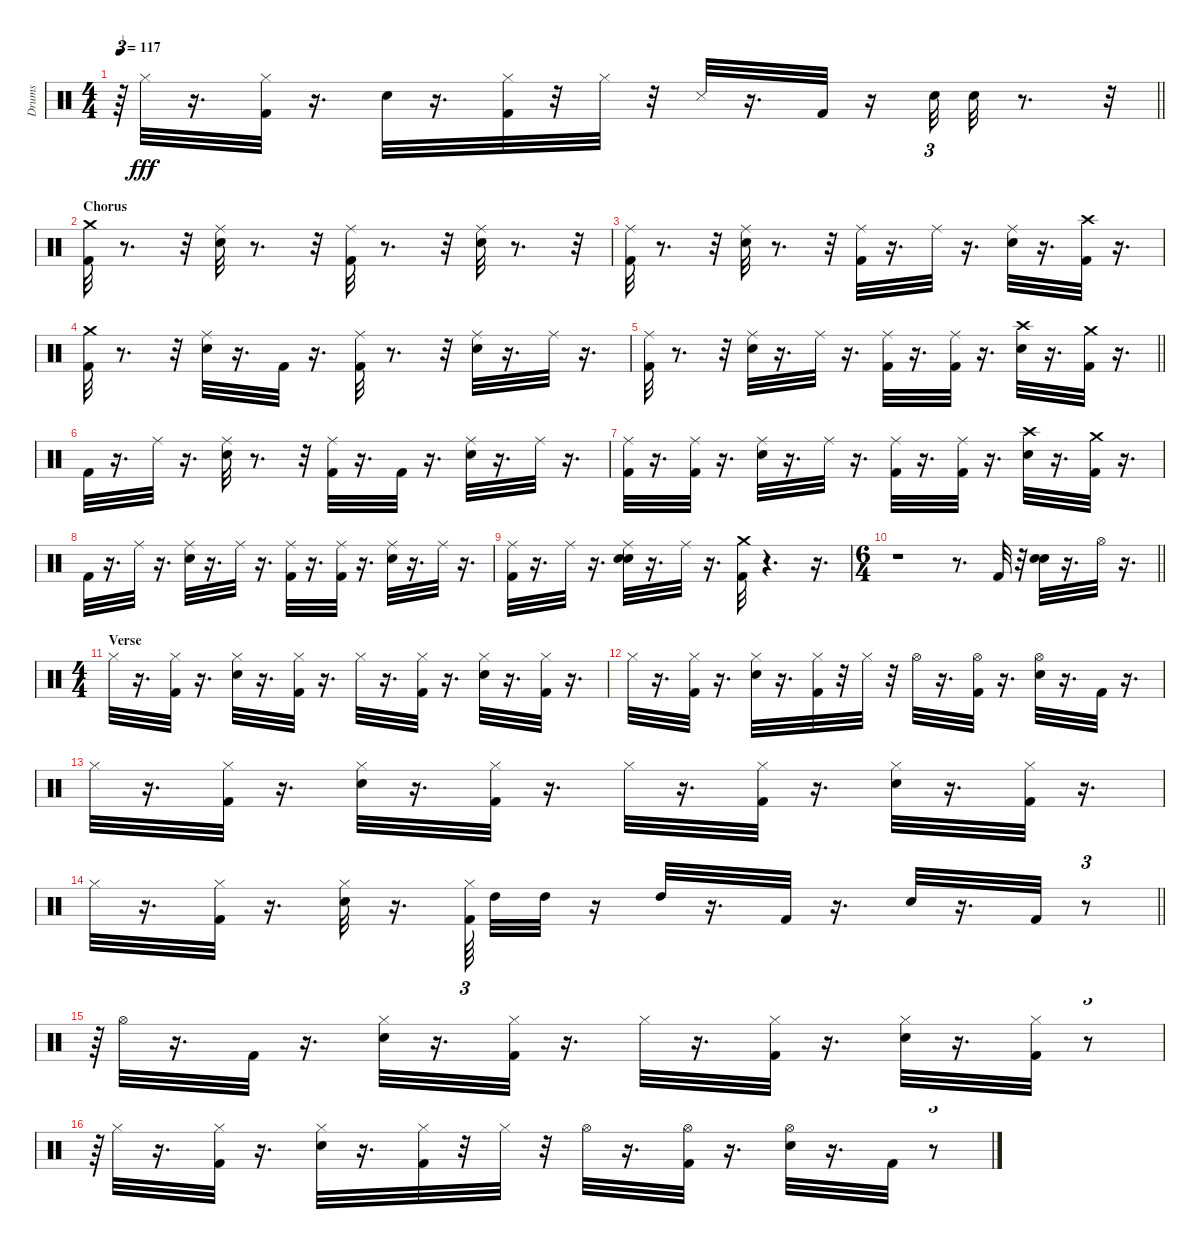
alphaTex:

\track ("Drums" "Drums") {instrument percussion}
\staff {score}
\articulation defaults
\ts (4 4)
\tempo 117
\clef neutral
\barLineRight lightlight
\ks c
r.64{tu (3 2) dy fff} "Hi-Hat (closed)".32 r.16{d} ("Hi-Hat (closed)" "Kick (hit) 2").32 r.16{d} "Electric Snare (hit)".32 r.16{d} ("Kick (hit) 2" "Hi-Hat (closed)").32 r.32 "Hi-Hat (closed)".32 r.32 "Snare (side stick) 3".32 r.16{d} "Kick (hit) 2".32 r.16 "Electric Snare (hit)".32{tu (3 2)} "Electric Snare (hit)".32 r.8{d} r.32 |
\section ("" "Chorus")
("Kick (hit) 2" "Crash medium (hit)").32 r.8{d} r.32 ("Electric Snare (hit)" "Ride (middle)").32 r.8{d} r.32 ("Kick (hit) 2" "Ride (middle)").32 r.8{d} r.32 ("Electric Snare (hit)" "Ride (middle)").32 r.8{d} r.32 |
("Kick (hit) 2" "Ride (middle)").32 r.8{d} r.32 ("Ride (middle)" "Electric Snare (hit)").32 r.8{d} r.32 ("Kick (hit) 2" "Ride (middle)").32 r.16{d} "Ride (middle)".32 r.16{d} ("Ride (middle)" "Electric Snare (hit)").32 r.16{d} ("Kick (hit) 2" "Crash high (hit)").32 r.16{d} |
("Kick (hit) 2" "Crash medium (hit)").32 r.8{d} r.32 ("Ride (middle)" "Electric Snare (hit)").32 r.16{d} "Kick (hit) 2".32 r.16{d} ("Kick (hit) 2" "Ride (middle)").32 r.8{d} r.32 ("Electric Snare (hit)" "Ride (middle)").32 r.16{d} "Ride (middle)".32 r.16{d} |
\barLineRight lightlight
("Kick (hit) 2" "Ride (middle)").32 r.8{d} r.32 ("Electric Snare (hit)" "Ride (middle)").32 r.16{d} "Ride (middle)".32 r.16{d} ("Kick (hit) 2" "Ride (middle)").32 r.16{d} ("Kick (hit) 2" "Ride (middle)").32 r.16{d} ("Electric Snare (hit)" "Crash high (hit)").32 r.16{d} ("Crash medium (hit)" "Kick (hit) 2").32 r.16{d} |
"Kick (hit) 2".32 r.16{d} "Ride (middle)".32 r.16{d} ("Electric Snare (hit)" "Ride (middle)").32 r.8{d} r.32 ("Ride (middle)" "Kick (hit) 2").32 r.16{d} "Kick (hit) 2".32 r.16{d} ("Ride (middle)" "Electric Snare (hit)").32 r.16{d} "Ride (middle)".32 r.16{d} |
("Kick (hit) 2" "Ride (middle)").32 r.16{d} ("Kick (hit) 2" "Ride (middle)").32 r.16{d} ("Ride (middle)" "Electric Snare (hit)").32 r.16{d} "Ride (middle)".32 r.16{d} ("Kick (hit) 2" "Ride (middle)").32 r.16{d} ("Kick (hit) 2" "Ride (middle)").32 r.16{d} ("Crash high (hit)" "Electric Snare (hit)").32 r.16{d} ("Crash medium (hit)" "Kick (hit) 2").32 r.16{d} |
"Kick (hit) 2".32 r.16{d} "Ride (middle)".32 r.16{d} ("Ride (middle)" "Electric Snare (hit)").32 r.16{d} "Ride (middle)".32 r.16{d} ("Kick (hit) 2" "Ride (middle)").32 r.16{d} ("Kick (hit) 2" "Ride (middle)").32 r.16{d} ("Ride (middle)" "Electric Snare (hit)").32 r.16{d} "Ride (middle)".32 r.16{d} |
("Ride (middle)" "Kick (hit) 2").32 r.16{d} "Ride (middle)".32 r.16{d} ("Electric Snare (hit)" "Ride (middle)" "Electric Snare (hit)").32 r.16{d} "Ride (middle)".32 r.16{d} ("Kick (hit) 2" "Crash medium (hit)").32 r.4{d} r.16{d} |
\ts (6 4)
\barLineRight lightlight
r.1 r.8{d} "Kick (hit) 2".32 r.32 ("Electric Snare (hit)" "Electric Snare (hit)").32 r.16{d} "Hi-Hat (open)".32 r.16{d} |
\ts (4 4)
\section ("" "Verse")
"Hi-Hat (closed)".32 r.16{d} ("Kick (hit) 2" "Hi-Hat (closed)").32 r.16{d} ("Electric Snare (hit)" "Hi-Hat (closed)").32 r.16{d} ("Kick (hit) 2" "Hi-Hat (closed)").32 r.16{d} "Hi-Hat (closed)".32 r.16{d} ("Kick (hit) 2" "Hi-Hat (closed)").32 r.16{d} ("Electric Snare (hit)" "Hi-Hat (closed)").32 r.16{d} ("Kick (hit) 2" "Hi-Hat (closed)").32 r.16{d} |
"Hi-Hat (closed)".32 r.16{d} ("Kick (hit) 2" "Hi-Hat (closed)").32 r.16{d} ("Electric Snare (hit)" "Hi-Hat (closed)").32 r.16{d} ("Kick (hit) 2" "Hi-Hat (closed)").32 r.32 "Hi-Hat (closed)".32 r.32 "Hi-Hat (open)".32 r.16{d} ("Kick (hit) 2" "Hi-Hat (open)").32 r.16{d} ("Electric Snare (hit)" "Hi-Hat (open)").32 r.16{d} "Kick (hit) 2".32 r.16{d} |
"Hi-Hat (closed)".32 r.16{d} ("Kick (hit) 2" "Hi-Hat (closed)").32 r.16{d} ("Electric Snare (hit)" "Hi-Hat (closed)").32 r.16{d} ("Kick (hit) 2" "Hi-Hat (closed)").32 r.16{d} "Hi-Hat (closed)".32 r.16{d} ("Kick (hit) 2" "Hi-Hat (closed)").32 r.16{d} ("Electric Snare (hit)" "Hi-Hat (closed)").32 r.16{d} ("Kick (hit) 2" "Hi-Hat (closed)").32 r.16{d} |
\barLineRight lightlight "Hi-Hat (closed)".32
r.16{d} ("Kick (hit) 2" "Hi-Hat (closed)").32 r.16{d} ("Electric Snare (hit)" "Hi-Hat (closed)").32 r.16{d} ("Kick (hit) 2" "Hi-Hat (closed)").64{tu (3 2) beam splitsecondary} "High Tom (hit)".32 "High Tom (hit)".32 r.16 "High Tom (hit)".32 r.16{d} "Kick (hit) 2".32 r.16{d} "Electric Snare (hit)".32 r.16{d} "Kick (hit) 2".32 r.8{tu (3 2)} |
r.64{tu (3 2)} "Hi-Hat (open)".32 r.16{d} "Kick (hit) 2".32 r.16{d} ("Electric Snare (hit)" "Hi-Hat (closed)").32 r.16{d} ("Kick (hit) 2" "Hi-Hat (closed)").32 r.16{d} "Hi-Hat (closed)".32 r.16{d} ("Kick (hit) 2" "Hi-Hat (closed)").32 r.16{d} ("Electric Snare (hit)" "Hi-Hat (closed)").32 r.16{d} ("Kick (hit) 2" "Hi-Hat (closed)").32 r.8{tu (3 2)} |
r.64{tu (3 2)} "Hi-Hat (closed)".32 r.16{d} ("Kick (hit) 2" "Hi-Hat (closed)").32 r.16{d} ("Electric Snare (hit)" "Hi-Hat (closed)").32 r.16{d} ("Hi-Hat (closed)" "Kick (hit) 2").32 r.32 "Hi-Hat (closed)".32 r.32 "Hi-Hat (open)".32 r.16{d} ("Hi-Hat (open)" "Kick (hit) 2").32 r.16{d} ("Electric Snare (hit)" "Hi-Hat (open)").32 r.16{d} "Kick (hit) 2".32 r.8{tu (3 2)}
